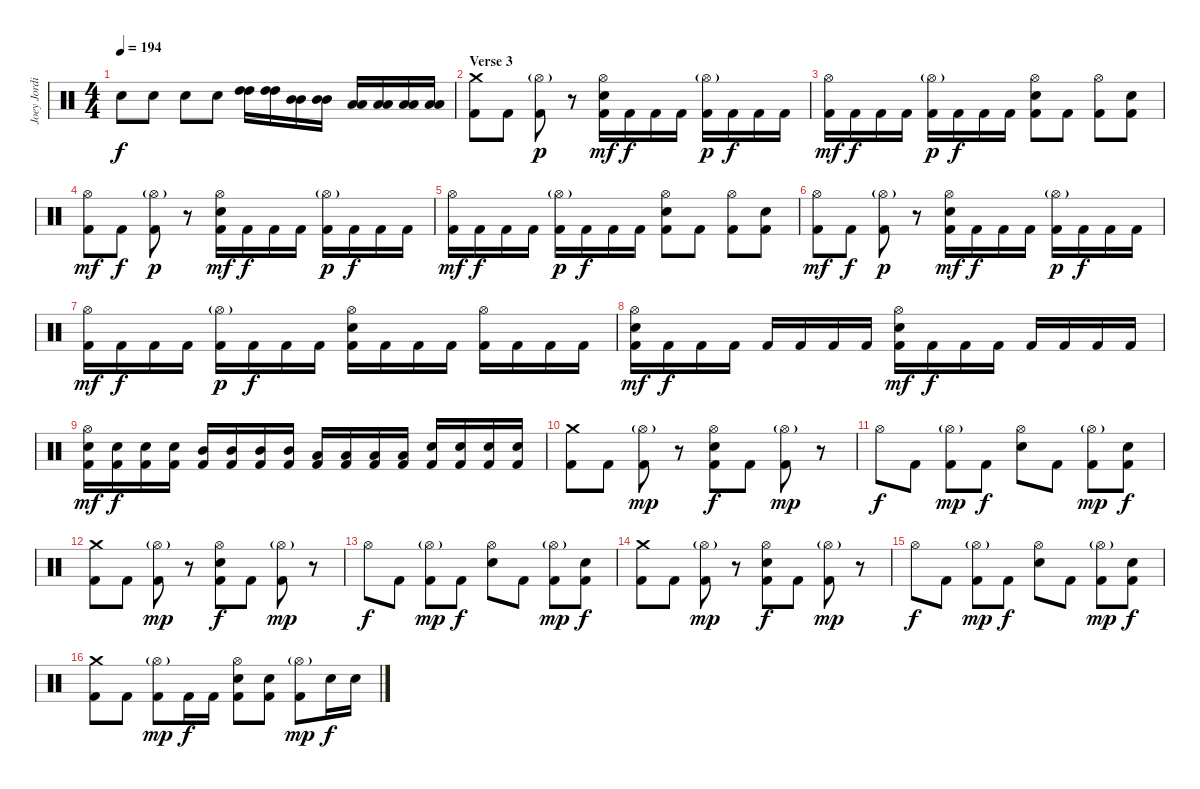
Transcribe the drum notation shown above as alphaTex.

\track ("Joey Jordison" "Joey Jordi") {instrument percussion}
\staff {score}
\articulation defaults
\ts (4 4)
\tempo 194
\clef neutral
\ks c "Snare (hit) 2".8{dy f} "Snare (hit) 2".8 "Snare (hit) 2".8 "Snare (hit) 2".8
("High Tom (hit)" "High Tom (hit)").16 ("High Tom (hit)" "High Tom (hit)").16 ("Mid Tom (hit)" "Mid Tom (hit)").16 ("Mid Tom (hit)" "Mid Tom (hit)").16 ("Low Tom (hit)" "Low Tom (hit)").16 ("Low Tom (hit)" "Low Tom (hit)").16 ("Low Tom (hit)" "Low Tom (hit)").16 ("Low Tom (hit)" "Low Tom (hit)").16 |
\section ("" "Verse 3")
("Crash medium (hit)" "Kick (hit) 2").8 "Kick (hit) 2".8 ("Hi-Hat (open)"{g} "Kick (hit) 2").8{dy p} r.8 ("Hi-Hat (open)" "Snare (hit) 2" "Kick (hit) 2").16{dy mf} "Kick (hit) 2".16{dy f} "Kick (hit) 2".16 "Kick (hit) 2".16 ("Hi-Hat (open)"{g} "Kick (hit) 2").16{dy p} "Kick (hit) 2".16{dy f} "Kick (hit) 2".16 "Kick (hit) 2".16 |
("Hi-Hat (open)" "Kick (hit) 2").16{dy mf} "Kick (hit) 2".16{dy f} "Kick (hit) 2".16 "Kick (hit) 2".16 ("Hi-Hat (open)"{g} "Kick (hit) 2").16{dy p} "Kick (hit) 2".16{dy f} "Kick (hit) 2".16 "Kick (hit) 2".16 ("Hi-Hat (open)" "Snare (hit) 2" "Kick (hit) 2").8 "Kick (hit) 2".8 ("Hi-Hat (open)" "Kick (hit) 2").8 ("Snare (hit) 2" "Kick (hit) 2").8 |
("Hi-Hat (open)" "Kick (hit) 2").8{dy mf} "Kick (hit) 2".8{dy f} ("Hi-Hat (open)"{g} "Kick (hit) 2").8{dy p} r.8 ("Hi-Hat (open)" "Snare (hit) 2" "Kick (hit) 2").16{dy mf} "Kick (hit) 2".16{dy f} "Kick (hit) 2".16 "Kick (hit) 2".16 ("Hi-Hat (open)"{g} "Kick (hit) 2").16{dy p} "Kick (hit) 2".16{dy f} "Kick (hit) 2".16 "Kick (hit) 2".16 |
("Hi-Hat (open)" "Kick (hit) 2").16{dy mf} "Kick (hit) 2".16{dy f} "Kick (hit) 2".16 "Kick (hit) 2".16 ("Hi-Hat (open)"{g} "Kick (hit) 2").16{dy p} "Kick (hit) 2".16{dy f} "Kick (hit) 2".16 "Kick (hit) 2".16 ("Hi-Hat (open)" "Snare (hit) 2" "Kick (hit) 2").8 "Kick (hit) 2".8 ("Hi-Hat (open)" "Kick (hit) 2").8 ("Snare (hit) 2" "Kick (hit) 2").8 |
("Hi-Hat (open)" "Kick (hit) 2").8{dy mf} "Kick (hit) 2".8{dy f} ("Hi-Hat (open)"{g} "Kick (hit) 2").8{dy p} r.8 ("Hi-Hat (open)" "Snare (hit) 2" "Kick (hit) 2").16{dy mf} "Kick (hit) 2".16{dy f} "Kick (hit) 2".16 "Kick (hit) 2".16 ("Hi-Hat (open)"{g} "Kick (hit) 2").16{dy p} "Kick (hit) 2".16{dy f} "Kick (hit) 2".16 "Kick (hit) 2".16 |
("Hi-Hat (open)" "Kick (hit) 2").16{dy mf} "Kick (hit) 2".16{dy f} "Kick (hit) 2".16 "Kick (hit) 2".16 ("Hi-Hat (open)"{g} "Kick (hit) 2").16{dy p} "Kick (hit) 2".16{dy f} "Kick (hit) 2".16 "Kick (hit) 2".16 ("Hi-Hat (open)" "Snare (hit) 2" "Kick (hit) 2").16 "Kick (hit) 2".16 "Kick (hit) 2".16 "Kick (hit) 2".16 ("Hi-Hat (open)" "Kick (hit) 2").16 "Kick (hit) 2".16 "Kick (hit) 2".16 "Kick (hit) 2".16 |
("Hi-Hat (open)" "Snare (hit) 2" "Kick (hit) 2").16{dy mf} "Kick (hit) 2".16{dy f} "Kick (hit) 2".16 "Kick (hit) 2".16 "Kick (hit) 2".16 "Kick (hit) 2".16 "Kick (hit) 2".16 "Kick (hit) 2".16 ("Hi-Hat (open)" "Snare (hit) 2" "Kick (hit) 2").16{dy mf} "Kick (hit) 2".16{dy f} "Kick (hit) 2".16 "Kick (hit) 2".16 "Kick (hit) 2".16 "Kick (hit) 2".16 "Kick (hit) 2".16 "Kick (hit) 2".16 |
("Hi-Hat (open)" "Snare (hit) 2" "Kick (hit) 2").16{dy mf} ("Snare (hit) 2" "Kick (hit) 2").16{dy f} ("Snare (hit) 2" "Kick (hit) 2").16 ("Snare (hit) 2" "Kick (hit) 2").16 ("Mid Tom (hit)" "Kick (hit) 2").16 ("Mid Tom (hit)" "Kick (hit) 2").16 ("Mid Tom (hit)" "Kick (hit) 2").16 ("Mid Tom (hit)" "Kick (hit) 2").16 ("Low Tom (hit)" "Kick (hit) 2").16 ("Low Tom (hit)" "Kick (hit) 2").16 ("Low Tom (hit)" "Kick (hit) 2").16 ("Low Tom (hit)" "Kick (hit) 2").16 ("Snare (hit) 2" "Kick (hit) 2").16 ("Snare (hit) 2" "Kick (hit) 2").16 ("Snare (hit) 2" "Kick (hit) 2").16 ("Snare (hit) 2" "Kick (hit) 2").16 |
("Crash medium (hit)" "Kick (hit) 2").8 "Kick (hit) 2".8 ("Hi-Hat (open)"{g} "Kick (hit) 2").8{dy mp} r.8 ("Hi-Hat (open)" "Snare (hit) 2" "Kick (hit) 2").8{dy f} "Kick (hit) 2".8 ("Hi-Hat (open)"{g} "Kick (hit) 2").8{dy mp} r.8 |
"Hi-Hat (open)".8{dy f} "Kick (hit) 2".8 ("Hi-Hat (open)"{g} "Kick (hit) 2").8{dy mp} "Kick (hit) 2".8{dy f} ("Hi-Hat (open)" "Snare (hit) 2").8 "Kick (hit) 2".8 ("Hi-Hat (open)"{g} "Kick (hit) 2").8{dy mp} ("Snare (hit) 2" "Kick (hit) 2").8{dy f} |
("Crash medium (hit)" "Kick (hit) 2").8 "Kick (hit) 2".8 ("Hi-Hat (open)"{g} "Kick (hit) 2").8{dy mp} r.8 ("Hi-Hat (open)" "Snare (hit) 2" "Kick (hit) 2").8{dy f} "Kick (hit) 2".8 ("Hi-Hat (open)"{g} "Kick (hit) 2").8{dy mp} r.8 |
"Hi-Hat (open)".8{dy f} "Kick (hit) 2".8 ("Hi-Hat (open)"{g} "Kick (hit) 2").8{dy mp} "Kick (hit) 2".8{dy f} ("Hi-Hat (open)" "Snare (hit) 2").8 "Kick (hit) 2".8 ("Hi-Hat (open)"{g} "Kick (hit) 2").8{dy mp} ("Snare (hit) 2" "Kick (hit) 2").8{dy f} |
("Crash medium (hit)" "Kick (hit) 2").8 "Kick (hit) 2".8 ("Hi-Hat (open)"{g} "Kick (hit) 2").8{dy mp} r.8 ("Hi-Hat (open)" "Snare (hit) 2" "Kick (hit) 2").8{dy f} "Kick (hit) 2".8 ("Hi-Hat (open)"{g} "Kick (hit) 2").8{dy mp} r.8 |
"Hi-Hat (open)".8{dy f} "Kick (hit) 2".8 ("Hi-Hat (open)"{g} "Kick (hit) 2").8{dy mp} "Kick (hit) 2".8{dy f} ("Hi-Hat (open)" "Snare (hit) 2").8 "Kick (hit) 2".8 ("Hi-Hat (open)"{g} "Kick (hit) 2").8{dy mp} ("Snare (hit) 2" "Kick (hit) 2").8{dy f} |
("Crash medium (hit)" "Kick (hit) 2").8 "Kick (hit) 2".8 ("Hi-Hat (open)"{g} "Kick (hit) 2").8{dy mp} "Kick (hit) 2".16{dy f} "Kick (hit) 2".16 ("Hi-Hat (open)" "Snare (hit) 2" "Kick (hit) 2").8 ("Snare (hit) 2" "Kick (hit) 2").8 ("Hi-Hat (open)"{g} "Kick (hit) 2").8{dy mp} "Snare (hit) 2".16{dy f} "Snare (hit) 2".16
